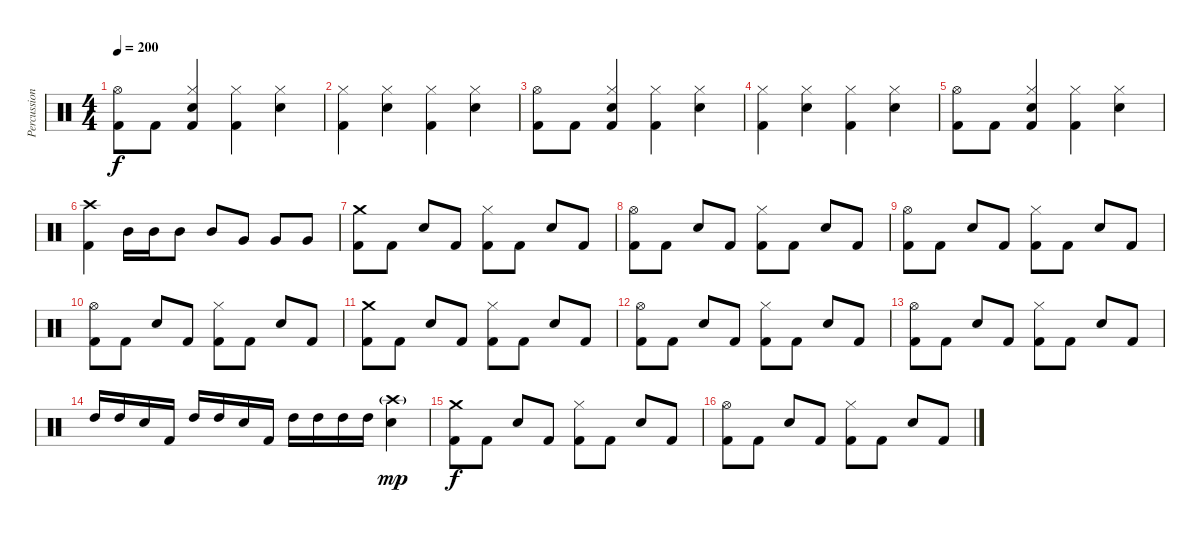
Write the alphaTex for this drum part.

\track ("Percussion" "Percussion") {instrument percussion}
\staff {score}
\articulation defaults
\ts (4 4)
\tempo 200
\clef neutral
\ks c
("Hi-Hat (open)" "Kick (hit) 2").8{dy f} "Kick (hit) 2".8 ("Hi-Hat (closed)" "Snare (hit) 2" "Kick (hit) 2").4 ("Hi-Hat (closed)" "Kick (hit) 2").4 ("Hi-Hat (closed)" "Snare (hit) 2").4 |
("Hi-Hat (closed)" "Kick (hit) 2").4 ("Hi-Hat (closed)" "Snare (hit) 2").4 ("Hi-Hat (closed)" "Kick (hit) 2").4 ("Hi-Hat (closed)" "Snare (hit) 2").4 |
("Hi-Hat (open)" "Kick (hit) 2").8 "Kick (hit) 2".8 ("Hi-Hat (closed)" "Snare (hit) 2" "Kick (hit) 2").4 ("Hi-Hat (closed)" "Kick (hit) 2").4 ("Hi-Hat (closed)" "Snare (hit) 2").4 |
("Hi-Hat (closed)" "Kick (hit) 2").4 ("Hi-Hat (closed)" "Snare (hit) 2").4 ("Hi-Hat (closed)" "Kick (hit) 2").4 ("Hi-Hat (closed)" "Snare (hit) 2").4 |
("Hi-Hat (open)" "Kick (hit) 2").8 "Kick (hit) 2".8 ("Hi-Hat (closed)" "Snare (hit) 2" "Kick (hit) 2").4 ("Hi-Hat (closed)" "Kick (hit) 2").4 ("Hi-Hat (closed)" "Snare (hit) 2").4 |
("Crash high (hit)" "Kick (hit) 2").4 "Mid Tom (hit)".16 "Mid Tom (hit)".16 "Mid Tom (hit)".8 "Mid Tom (hit)".8 "Very Low Tom (hit)".8 "Very Low Tom (hit)".8 "Very Low Tom (hit)".8 |
("Crash medium (hit)" "Kick (hit) 2").8 "Kick (hit) 2".8 "Snare (hit) 2".8 "Kick (hit) 2".8 ("Hi-Hat (closed)" "Kick (hit) 2").8 "Kick (hit) 2".8 "Snare (hit) 2".8 "Kick (hit) 2".8 |
("Hi-Hat (open)" "Kick (hit) 2").8 "Kick (hit) 2".8 "Snare (hit) 2".8 "Kick (hit) 2".8 ("Hi-Hat (closed)" "Kick (hit) 2").8 "Kick (hit) 2".8 "Snare (hit) 2".8 "Kick (hit) 2".8 |
("Hi-Hat (open)" "Kick (hit) 2").8 "Kick (hit) 2".8 "Snare (hit) 2".8 "Kick (hit) 2".8 ("Hi-Hat (closed)" "Kick (hit) 2").8 "Kick (hit) 2".8 "Snare (hit) 2".8 "Kick (hit) 2".8 |
("Hi-Hat (open)" "Kick (hit) 2").8 "Kick (hit) 2".8 "Snare (hit) 2".8 "Kick (hit) 2".8 ("Hi-Hat (closed)" "Kick (hit) 2").8 "Kick (hit) 2".8 "Snare (hit) 2".8 "Kick (hit) 2".8 |
("Crash medium (hit)" "Kick (hit) 2").8 "Kick (hit) 2".8 "Snare (hit) 2".8 "Kick (hit) 2".8 ("Hi-Hat (closed)" "Kick (hit) 2").8 "Kick (hit) 2".8 "Snare (hit) 2".8 "Kick (hit) 2".8 |
("Hi-Hat (open)" "Kick (hit) 2").8 "Kick (hit) 2".8 "Snare (hit) 2".8 "Kick (hit) 2".8 ("Hi-Hat (closed)" "Kick (hit) 2").8 "Kick (hit) 2".8 "Snare (hit) 2".8 "Kick (hit) 2".8 |
("Hi-Hat (open)" "Kick (hit) 2").8 "Kick (hit) 2".8 "Snare (hit) 2".8 "Kick (hit) 2".8 ("Hi-Hat (closed)" "Kick (hit) 2").8 "Kick (hit) 2".8 "Snare (hit) 2".8 "Kick (hit) 2".8 |
"High Tom (hit)".16 "High Tom (hit)".16 "Snare (hit) 2".16 "Kick (hit) 2".16 "High Tom (hit)".16 "High Tom (hit)".16 "Snare (hit) 2".16 "Kick (hit) 2".16 "High Tom (hit)".16 "High Tom (hit)".16 "High Tom (hit)".16 "High Tom (hit)".16 ("Crash high (hit)"{g} "Snare (hit) 2").4{dy mp} |
("Crash medium (hit)" "Kick (hit) 2").8{dy f} "Kick (hit) 2".8 "Snare (hit) 2".8 "Kick (hit) 2".8 ("Hi-Hat (closed)" "Kick (hit) 2").8 "Kick (hit) 2".8 "Snare (hit) 2".8 "Kick (hit) 2".8 |
("Hi-Hat (open)" "Kick (hit) 2").8 "Kick (hit) 2".8 "Snare (hit) 2".8 "Kick (hit) 2".8 ("Hi-Hat (closed)" "Kick (hit) 2").8 "Kick (hit) 2".8 "Snare (hit) 2".8 "Kick (hit) 2".8
